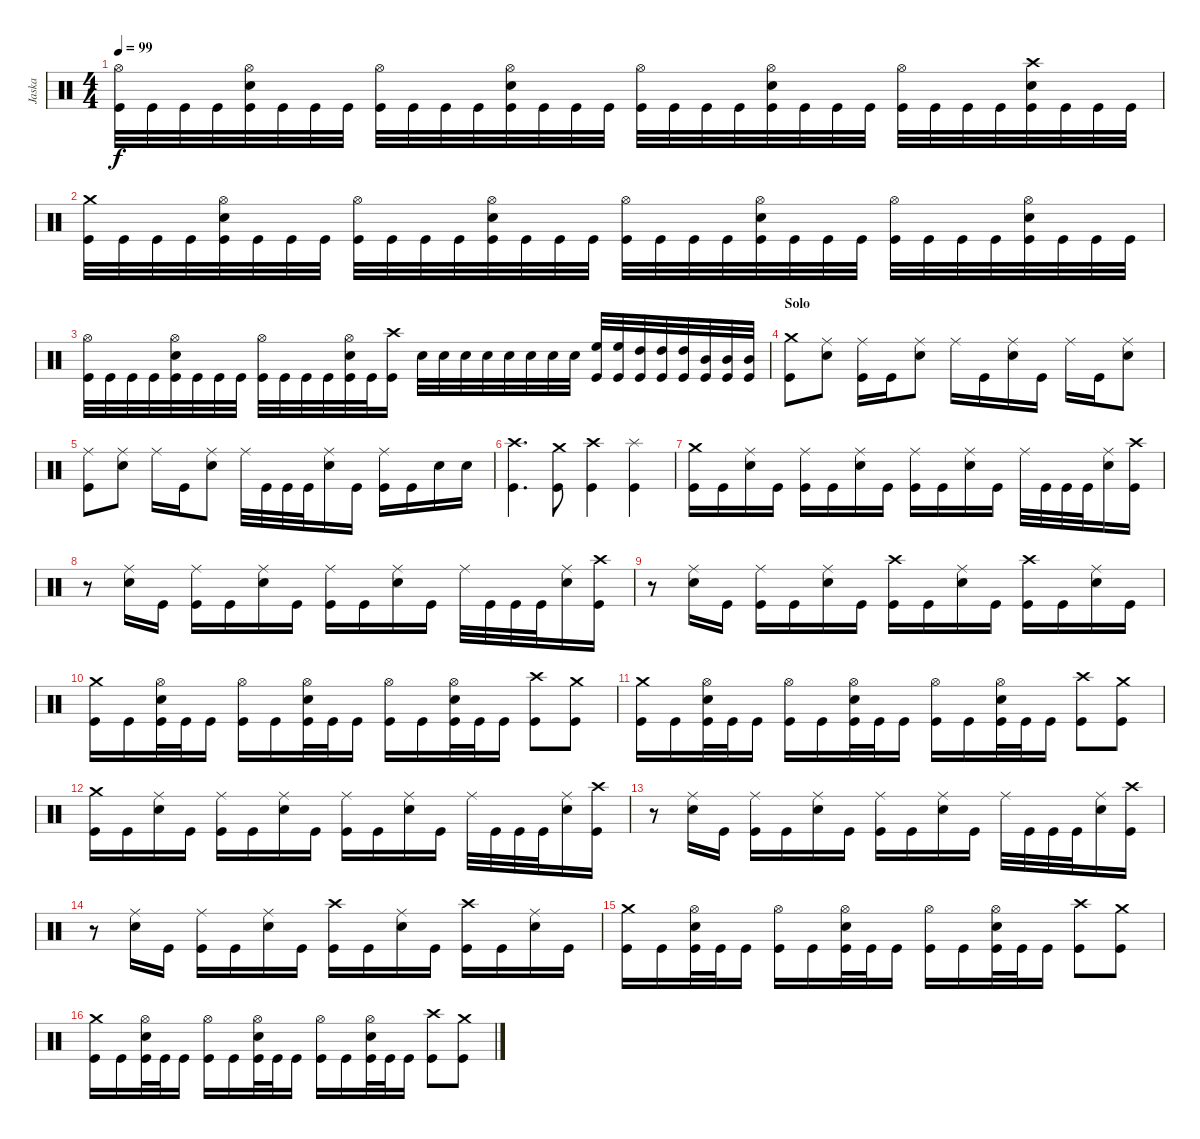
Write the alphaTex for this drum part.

\track ("Jaska" "Jaska") {instrument percussion}
\staff {score}
\articulation defaults
\ts (4 4)
\tempo 99
\clef neutral
\ks c
("Hi-Hat (open)" "Kick (hit)").32{dy f} "Kick (hit)".32 "Kick (hit)".32 "Kick (hit)".32 ("Hi-Hat (open)" "Electric Snare (hit)" "Kick (hit)").32 "Kick (hit)".32 "Kick (hit)".32 "Kick (hit)".32 ("Hi-Hat (open)" "Kick (hit)").32 "Kick (hit)".32 "Kick (hit)".32 "Kick (hit)".32 ("Hi-Hat (open)" "Electric Snare (hit)" "Kick (hit)").32 "Kick (hit)".32 "Kick (hit)".32 "Kick (hit)".32 ("Hi-Hat (open)" "Kick (hit)").32 "Kick (hit)".32 "Kick (hit)".32 "Kick (hit)".32 ("Hi-Hat (open)" "Electric Snare (hit)" "Kick (hit)").32 "Kick (hit)".32 "Kick (hit)".32 "Kick (hit)".32 ("Hi-Hat (open)" "Kick (hit)").32 "Kick (hit)".32 "Kick (hit)".32 "Kick (hit)".32 ("Crash high (hit)" "Electric Snare (hit)" "Kick (hit)").32 "Kick (hit)".32 "Kick (hit)".32 "Kick (hit)".32 |
("Crash medium (hit)" "Kick (hit)").32 "Kick (hit)".32 "Kick (hit)".32 "Kick (hit)".32 ("Hi-Hat (open)" "Electric Snare (hit)" "Kick (hit)").32 "Kick (hit)".32 "Kick (hit)".32 "Kick (hit)".32 ("Hi-Hat (open)" "Kick (hit)").32 "Kick (hit)".32 "Kick (hit)".32 "Kick (hit)".32 ("Hi-Hat (open)" "Electric Snare (hit)" "Kick (hit)").32 "Kick (hit)".32 "Kick (hit)".32 "Kick (hit)".32 ("Hi-Hat (open)" "Kick (hit)").32 "Kick (hit)".32 "Kick (hit)".32 "Kick (hit)".32 ("Hi-Hat (open)" "Electric Snare (hit)" "Kick (hit)").32 "Kick (hit)".32 "Kick (hit)".32 "Kick (hit)".32 ("Hi-Hat (open)" "Kick (hit)").32 "Kick (hit)".32 "Kick (hit)".32 "Kick (hit)".32 ("Hi-Hat (open)" "Electric Snare (hit)" "Kick (hit)").32 "Kick (hit)".32 "Kick (hit)".32 "Kick (hit)".32 |
("Hi-Hat (open)" "Kick (hit)").32 "Kick (hit)".32 "Kick (hit)".32 "Kick (hit)".32 ("Hi-Hat (open)" "Electric Snare (hit)" "Kick (hit)").32 "Kick (hit)".32 "Kick (hit)".32 "Kick (hit)".32 ("Hi-Hat (open)" "Kick (hit)").32 "Kick (hit)".32 "Kick (hit)".32 "Kick (hit)".32 ("Hi-Hat (open)" "Electric Snare (hit)" "Kick (hit)").32 "Kick (hit)".32 ("Crash high (hit)" "Kick (hit)").16 "Electric Snare (hit)".32 "Electric Snare (hit)".32 "Electric Snare (hit)".32 "Electric Snare (hit)".32 "Electric Snare (hit)".32 "Electric Snare (hit)".32 "Electric Snare (hit)".32 "Electric Snare (hit)".32 ("High Floor Tom (hit)" "Kick (hit)").32 ("High Floor Tom (hit)" "Kick (hit)").32 ("High Tom (hit)" "Kick (hit)").32 ("High Tom (hit)" "Kick (hit)").32 ("High Tom (hit)" "Kick (hit)").32 ("Mid Tom (hit)" "Kick (hit)").32 ("Mid Tom (hit)" "Kick (hit)").32 ("Mid Tom (hit)" "Kick (hit)").32 |
\section ("" "Solo")
("Crash medium (hit)" "Kick (hit)").8 ("Ride (middle)" "Electric Snare (hit)").8 ("Ride (middle)" "Kick (hit)").16 "Kick (hit)".16 ("Ride (middle)" "Electric Snare (hit)").8 "Ride (middle)".16 "Kick (hit)".16 ("Ride (middle)" "Electric Snare (hit)").16 "Kick (hit)".16 "Ride (middle)".16 "Kick (hit)".16 ("Ride (middle)" "Electric Snare (hit)").8 |
("Ride (middle)" "Kick (hit)").8 ("Ride (middle)" "Electric Snare (hit)").8 "Ride (middle)".16 "Kick (hit)".16 ("Ride (middle)" "Electric Snare (hit)").8 "Ride (middle)".32 "Kick (hit)".32 "Kick (hit)".32 "Kick (hit)".32 ("Ride (middle)" "Electric Snare (hit)").16 "Kick (hit)".16 ("Ride (middle)" "Kick (hit)").16 "Kick (hit)".16 "Electric Snare (hit)".16 "Electric Snare (hit)".16 |
("Crash high (hit)" "Kick (hit)").4{d} ("Crash medium (hit)" "Kick (hit)").8 ("Crash high (hit)" "Kick (hit)").4 ("Splash (hit)" "Kick (hit)").4 |
("Crash medium (hit)" "Kick (hit)").16 "Kick (hit)".16 ("Ride (middle)" "Electric Snare (hit)").16 "Kick (hit)".16 ("Ride (middle)" "Kick (hit)").16 "Kick (hit)".16 ("Ride (middle)" "Electric Snare (hit)").16 "Kick (hit)".16 ("Ride (middle)" "Kick (hit)").16 "Kick (hit)".16 ("Ride (middle)" "Electric Snare (hit)").16 "Kick (hit)".16 "Ride (middle)".32 "Kick (hit)".32 "Kick (hit)".32 "Kick (hit)".32 ("Ride (middle)" "Electric Snare (hit)").16 ("Crash high (hit)" "Kick (hit)").16 |
r.8 ("Ride (middle)" "Electric Snare (hit)").16 "Kick (hit)".16 ("Ride (middle)" "Kick (hit)").16 "Kick (hit)".16 ("Ride (middle)" "Electric Snare (hit)").16 "Kick (hit)".16 ("Ride (middle)" "Kick (hit)").16 "Kick (hit)".16 ("Ride (middle)" "Electric Snare (hit)").16 "Kick (hit)".16 "Ride (middle)".32 "Kick (hit)".32 "Kick (hit)".32 "Kick (hit)".32 ("Ride (middle)" "Electric Snare (hit)").16 ("Crash high (hit)" "Kick (hit)").16 |
r.8 ("Ride (middle)" "Electric Snare (hit)").16 "Kick (hit)".16 ("Ride (middle)" "Kick (hit)").16 "Kick (hit)".16 ("Ride (middle)" "Electric Snare (hit)").16 "Kick (hit)".16 ("Crash high (hit)" "Kick (hit)").16 "Kick (hit)".16 ("Ride (middle)" "Electric Snare (hit)").16 "Kick (hit)".16 ("Crash high (hit)" "Kick (hit)").16 "Kick (hit)".16 ("Ride (middle)" "Electric Snare (hit)").16 "Kick (hit)".16 |
("Crash medium (hit)" "Kick (hit)").16 "Kick (hit)".16 ("Hi-Hat (open)" "Electric Snare (hit)" "Kick (hit)").32 "Kick (hit)".32 "Kick (hit)".16 ("Hi-Hat (open)" "Kick (hit)").16 "Kick (hit)".16 ("Hi-Hat (open)" "Electric Snare (hit)" "Kick (hit)").32 "Kick (hit)".32 "Kick (hit)".16 ("Hi-Hat (open)" "Kick (hit)").16 "Kick (hit)".16 ("Hi-Hat (open)" "Electric Snare (hit)" "Kick (hit)").32 "Kick (hit)".32 "Kick (hit)".16 ("Crash high (hit)" "Kick (hit)").8 ("Crash medium (hit)" "Kick (hit)").8 |
("Crash medium (hit)" "Kick (hit)").16 "Kick (hit)".16 ("Hi-Hat (open)" "Electric Snare (hit)" "Kick (hit)").32 "Kick (hit)".32 "Kick (hit)".16 ("Hi-Hat (open)" "Kick (hit)").16 "Kick (hit)".16 ("Hi-Hat (open)" "Electric Snare (hit)" "Kick (hit)").32 "Kick (hit)".32 "Kick (hit)".16 ("Hi-Hat (open)" "Kick (hit)").16 "Kick (hit)".16 ("Hi-Hat (open)" "Electric Snare (hit)" "Kick (hit)").32 "Kick (hit)".32 "Kick (hit)".16 ("Crash high (hit)" "Kick (hit)").8 ("Crash medium (hit)" "Kick (hit)").8 |
("Crash medium (hit)" "Kick (hit)").16 "Kick (hit)".16 ("Ride (middle)" "Electric Snare (hit)").16 "Kick (hit)".16 ("Ride (middle)" "Kick (hit)").16 "Kick (hit)".16 ("Ride (middle)" "Electric Snare (hit)").16 "Kick (hit)".16 ("Ride (middle)" "Kick (hit)").16 "Kick (hit)".16 ("Ride (middle)" "Electric Snare (hit)").16 "Kick (hit)".16 "Ride (middle)".32 "Kick (hit)".32 "Kick (hit)".32 "Kick (hit)".32 ("Ride (middle)" "Electric Snare (hit)").16 ("Crash high (hit)" "Kick (hit)").16 |
r.8 ("Ride (middle)" "Electric Snare (hit)").16 "Kick (hit)".16 ("Ride (middle)" "Kick (hit)").16 "Kick (hit)".16 ("Ride (middle)" "Electric Snare (hit)").16 "Kick (hit)".16 ("Ride (middle)" "Kick (hit)").16 "Kick (hit)".16 ("Ride (middle)" "Electric Snare (hit)").16 "Kick (hit)".16 "Ride (middle)".32 "Kick (hit)".32 "Kick (hit)".32 "Kick (hit)".32 ("Ride (middle)" "Electric Snare (hit)").16 ("Crash high (hit)" "Kick (hit)").16 |
r.8 ("Ride (middle)" "Electric Snare (hit)").16 "Kick (hit)".16 ("Ride (middle)" "Kick (hit)").16 "Kick (hit)".16 ("Ride (middle)" "Electric Snare (hit)").16 "Kick (hit)".16 ("Crash high (hit)" "Kick (hit)").16 "Kick (hit)".16 ("Ride (middle)" "Electric Snare (hit)").16 "Kick (hit)".16 ("Crash high (hit)" "Kick (hit)").16 "Kick (hit)".16 ("Ride (middle)" "Electric Snare (hit)").16 "Kick (hit)".16 |
("Crash medium (hit)" "Kick (hit)").16 "Kick (hit)".16 ("Hi-Hat (open)" "Electric Snare (hit)" "Kick (hit)").32 "Kick (hit)".32 "Kick (hit)".16 ("Hi-Hat (open)" "Kick (hit)").16 "Kick (hit)".16 ("Hi-Hat (open)" "Electric Snare (hit)" "Kick (hit)").32 "Kick (hit)".32 "Kick (hit)".16 ("Hi-Hat (open)" "Kick (hit)").16 "Kick (hit)".16 ("Hi-Hat (open)" "Electric Snare (hit)" "Kick (hit)").32 "Kick (hit)".32 "Kick (hit)".16 ("Crash high (hit)" "Kick (hit)").8 ("Crash medium (hit)" "Kick (hit)").8 |
("Crash medium (hit)" "Kick (hit)").16 "Kick (hit)".16 ("Hi-Hat (open)" "Electric Snare (hit)" "Kick (hit)").32 "Kick (hit)".32 "Kick (hit)".16 ("Hi-Hat (open)" "Kick (hit)").16 "Kick (hit)".16 ("Hi-Hat (open)" "Electric Snare (hit)" "Kick (hit)").32 "Kick (hit)".32 "Kick (hit)".16 ("Hi-Hat (open)" "Kick (hit)").16 "Kick (hit)".16 ("Hi-Hat (open)" "Electric Snare (hit)" "Kick (hit)").32 "Kick (hit)".32 "Kick (hit)".16 ("Crash high (hit)" "Kick (hit)").8 ("Crash medium (hit)" "Kick (hit)").8
